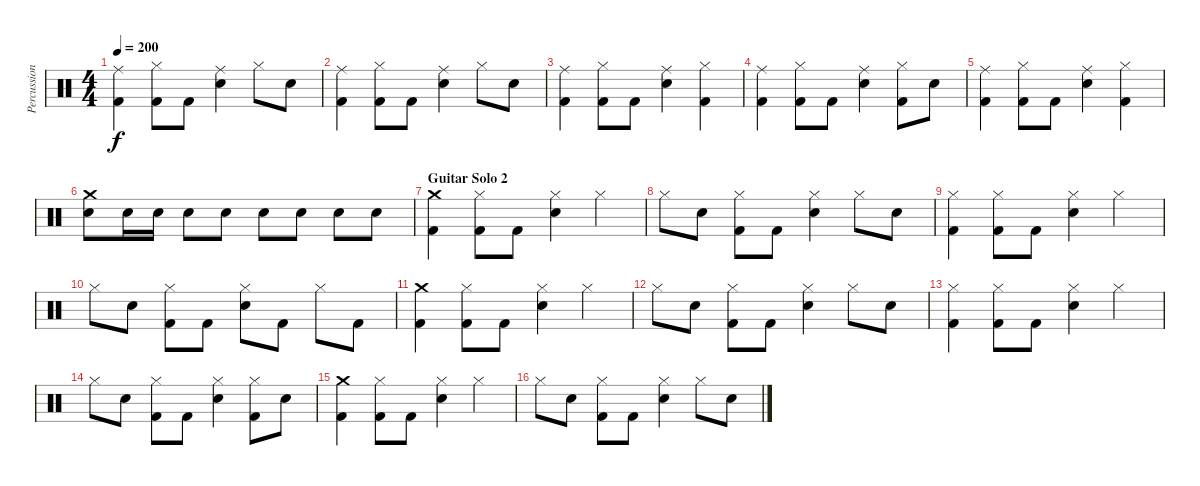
\track ("Percussion" "Percussion") {instrument percussion}
\staff {score}
\articulation defaults
\ts (4 4)
\tempo 200
\clef neutral
\ks c
("Ride (middle)" "Kick (hit) 2").4{dy f} ("Hi-Hat (closed)" "Kick (hit) 2").8 "Kick (hit) 2".8 ("Ride (middle)" "Electric Snare (hit)").4 "Hi-Hat (closed)".8 "Electric Snare (hit)".8 |
("Ride (middle)" "Kick (hit) 2").4 ("Hi-Hat (closed)" "Kick (hit) 2").8 "Kick (hit) 2".8 ("Ride (middle)" "Electric Snare (hit)").4 "Hi-Hat (closed)".8 "Electric Snare (hit)".8 |
("Ride (middle)" "Kick (hit) 2").4 ("Hi-Hat (closed)" "Kick (hit) 2").8 "Kick (hit) 2".8 ("Ride (middle)" "Electric Snare (hit)").4 ("Hi-Hat (closed)" "Kick (hit) 2").4 |
("Ride (middle)" "Kick (hit) 2").4 ("Hi-Hat (closed)" "Kick (hit) 2").8 "Kick (hit) 2".8 ("Ride (middle)" "Electric Snare (hit)").4 ("Hi-Hat (closed)" "Kick (hit) 2").8 "Electric Snare (hit)".8 |
("Ride (middle)" "Kick (hit) 2").4 ("Hi-Hat (closed)" "Kick (hit) 2").8 "Kick (hit) 2".8 ("Ride (middle)" "Electric Snare (hit)").4 ("Hi-Hat (closed)" "Kick (hit) 2").4 |
("Crash medium (hit)" "Electric Snare (hit)").8 "Electric Snare (hit)".16 "Electric Snare (hit)".16 "Electric Snare (hit)".8 "Electric Snare (hit)".8 "Electric Snare (hit)".8 "Electric Snare (hit)".8 "Electric Snare (hit)".8 "Electric Snare (hit)".8 |
\section ("" "Guitar Solo 2")
("Crash medium (hit)" "Kick (hit) 2").4 ("Hi-Hat (closed)" "Kick (hit) 2").8 "Kick (hit) 2".8 ("Hi-Hat (closed)" "Electric Snare (hit)").4 "Hi-Hat (closed)".4 |
"Hi-Hat (closed)".8 "Electric Snare (hit)".8 ("Hi-Hat (closed)" "Kick (hit) 2").8 "Kick (hit) 2".8 ("Hi-Hat (closed)" "Electric Snare (hit)").4 "Hi-Hat (closed)".8 "Electric Snare (hit)".8 |
("Hi-Hat (closed)" "Kick (hit) 2").4 ("Hi-Hat (closed)" "Kick (hit) 2").8 "Kick (hit) 2".8 ("Hi-Hat (closed)" "Electric Snare (hit)").4 "Hi-Hat (closed)".4 |
"Hi-Hat (closed)".8 "Electric Snare (hit)".8 ("Hi-Hat (closed)" "Kick (hit) 2").8 "Kick (hit) 2".8 ("Hi-Hat (closed)" "Electric Snare (hit)").8 "Kick (hit) 2".8 "Hi-Hat (closed)".8 "Kick (hit) 2".8 |
("Crash medium (hit)" "Kick (hit) 2").4 ("Hi-Hat (closed)" "Kick (hit) 2").8 "Kick (hit) 2".8 ("Hi-Hat (closed)" "Electric Snare (hit)").4 "Hi-Hat (closed)".4 |
"Hi-Hat (closed)".8 "Electric Snare (hit)".8 ("Hi-Hat (closed)" "Kick (hit) 2").8 "Kick (hit) 2".8 ("Hi-Hat (closed)" "Electric Snare (hit)").4 "Hi-Hat (closed)".8 "Electric Snare (hit)".8 |
("Hi-Hat (closed)" "Kick (hit) 2").4 ("Hi-Hat (closed)" "Kick (hit) 2").8 "Kick (hit) 2".8 ("Hi-Hat (closed)" "Electric Snare (hit)").4 "Hi-Hat (closed)".4 |
"Hi-Hat (closed)".8 "Electric Snare (hit)".8 ("Hi-Hat (closed)" "Kick (hit) 2").8 "Kick (hit) 2".8 ("Hi-Hat (closed)" "Electric Snare (hit)").4 ("Hi-Hat (closed)" "Kick (hit) 2").8 "Electric Snare (hit)".8 |
("Crash medium (hit)" "Kick (hit) 2").4 ("Hi-Hat (closed)" "Kick (hit) 2").8 "Kick (hit) 2".8 ("Hi-Hat (closed)" "Electric Snare (hit)").4 "Hi-Hat (closed)".4 |
"Hi-Hat (closed)".8 "Electric Snare (hit)".8 ("Hi-Hat (closed)" "Kick (hit) 2").8 "Kick (hit) 2".8 ("Hi-Hat (closed)" "Electric Snare (hit)").4 "Hi-Hat (closed)".8 "Electric Snare (hit)".8
